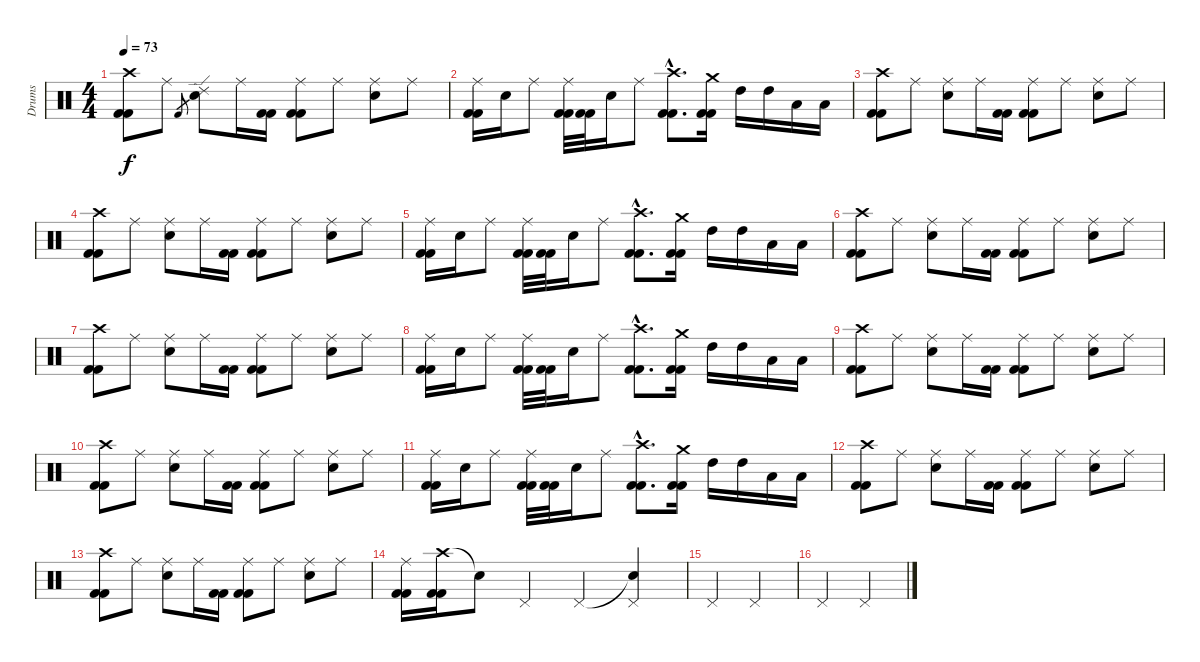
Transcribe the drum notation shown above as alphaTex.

\track ("Drums" "Drums") {instrument percussion}
\staff {score}
\articulation defaults
\ts (4 4)
\tempo 73
\clef neutral
\ks c
("Crash high (hit)" "Kick (hit) 2" "Kick (hit) 2").8{dy f} "Ride (middle)".8 "Kick (hit) 2".8{gr} ("Ride (edge) 2" "Snare (hit) 2").8 "Ride (middle)".16 ("Kick (hit) 2" "Kick (hit) 2").16 ("Ride (middle)" "Kick (hit) 2" "Kick (hit) 2").8 "Ride (middle)".8 ("Ride (middle)" "Snare (hit) 2").8 "Ride (middle)".8 |
("Ride (middle)" "Kick (hit) 2" "Kick (hit) 2").16 "Snare (hit) 2".16 "Ride (middle)".8 ("Ride (middle)" "Kick (hit) 2" "Kick (hit) 2").32 ("Kick (hit) 2" "Kick (hit) 2").32 "Snare (hit) 2".16 "Ride (middle)".8 ("Crash high (hit)"{hac} "Kick (hit) 2"{hac} "Kick (hit) 2"{hac}).8{d} ("Crash medium (hit)" "Kick (hit) 2" "Kick (hit) 2").16 "High Tom (hit)".16 "High Tom (hit)".16 "Low Tom (hit)".16 "Low Tom (hit)".16 |
("Crash high (hit)" "Kick (hit) 2" "Kick (hit) 2").8 "Ride (middle)".8 ("Ride (middle)" "Snare (hit) 2").8 "Ride (middle)".16 ("Kick (hit) 2" "Kick (hit) 2").16 ("Ride (middle)" "Kick (hit) 2" "Kick (hit) 2").8 "Ride (middle)".8 ("Ride (middle)" "Snare (hit) 2").8 "Ride (middle)".8 |
("Crash high (hit)" "Kick (hit) 2" "Kick (hit) 2").8 "Ride (middle)".8 ("Ride (middle)" "Snare (hit) 2").8 "Ride (middle)".16 ("Kick (hit) 2" "Kick (hit) 2").16 ("Ride (middle)" "Kick (hit) 2" "Kick (hit) 2").8 "Ride (middle)".8 ("Ride (middle)" "Snare (hit) 2").8 "Ride (middle)".8 |
("Ride (middle)" "Kick (hit) 2" "Kick (hit) 2").16 "Snare (hit) 2".16 "Ride (middle)".8 ("Ride (middle)" "Kick (hit) 2" "Kick (hit) 2").32 ("Kick (hit) 2" "Kick (hit) 2").32 "Snare (hit) 2".16 "Ride (middle)".8 ("Crash high (hit)"{hac} "Kick (hit) 2"{hac} "Kick (hit) 2"{hac}).8{d} ("Crash medium (hit)" "Kick (hit) 2" "Kick (hit) 2").16 "High Tom (hit)".16 "High Tom (hit)".16 "Low Tom (hit)".16 "Low Tom (hit)".16 |
("Crash high (hit)" "Kick (hit) 2" "Kick (hit) 2").8 "Ride (middle)".8 ("Ride (middle)" "Snare (hit) 2").8 "Ride (middle)".16 ("Kick (hit) 2" "Kick (hit) 2").16 ("Ride (middle)" "Kick (hit) 2" "Kick (hit) 2").8 "Ride (middle)".8 ("Ride (middle)" "Snare (hit) 2").8 "Ride (middle)".8 |
("Crash high (hit)" "Kick (hit) 2" "Kick (hit) 2").8 "Ride (middle)".8 ("Ride (middle)" "Snare (hit) 2").8 "Ride (middle)".16 ("Kick (hit) 2" "Kick (hit) 2").16 ("Ride (middle)" "Kick (hit) 2" "Kick (hit) 2").8 "Ride (middle)".8 ("Ride (middle)" "Snare (hit) 2").8 "Ride (middle)".8 |
("Ride (middle)" "Kick (hit) 2" "Kick (hit) 2").16 "Snare (hit) 2".16 "Ride (middle)".8 ("Ride (middle)" "Kick (hit) 2" "Kick (hit) 2").32 ("Kick (hit) 2" "Kick (hit) 2").32 "Snare (hit) 2".16 "Ride (middle)".8 ("Crash high (hit)"{hac} "Kick (hit) 2"{hac} "Kick (hit) 2"{hac}).8{d} ("Crash medium (hit)" "Kick (hit) 2" "Kick (hit) 2").16 "High Tom (hit)".16 "High Tom (hit)".16 "Low Tom (hit)".16 "Low Tom (hit)".16 |
("Crash high (hit)" "Kick (hit) 2" "Kick (hit) 2").8 "Ride (middle)".8 ("Ride (middle)" "Snare (hit) 2").8 "Ride (middle)".16 ("Kick (hit) 2" "Kick (hit) 2").16 ("Ride (middle)" "Kick (hit) 2" "Kick (hit) 2").8 "Ride (middle)".8 ("Ride (middle)" "Snare (hit) 2").8 "Ride (middle)".8 |
("Crash high (hit)" "Kick (hit) 2" "Kick (hit) 2").8 "Ride (middle)".8 ("Ride (middle)" "Snare (hit) 2").8 "Ride (middle)".16 ("Kick (hit) 2" "Kick (hit) 2").16 ("Ride (middle)" "Kick (hit) 2" "Kick (hit) 2").8 "Ride (middle)".8 ("Ride (middle)" "Snare (hit) 2").8 "Ride (middle)".8 |
("Ride (middle)" "Kick (hit) 2" "Kick (hit) 2").16 "Snare (hit) 2".16 "Ride (middle)".8 ("Ride (middle)" "Kick (hit) 2" "Kick (hit) 2").32 ("Kick (hit) 2" "Kick (hit) 2").32 "Snare (hit) 2".16 "Ride (middle)".8 ("Crash high (hit)"{hac} "Kick (hit) 2"{hac} "Kick (hit) 2"{hac}).8{d} ("Crash medium (hit)" "Kick (hit) 2" "Kick (hit) 2").16 "High Tom (hit)".16 "High Tom (hit)".16 "Low Tom (hit)".16 "Low Tom (hit)".16 |
("Crash high (hit)" "Kick (hit) 2" "Kick (hit) 2").8 "Ride (middle)".8 ("Ride (middle)" "Snare (hit) 2").8 "Ride (middle)".16 ("Kick (hit) 2" "Kick (hit) 2").16 ("Ride (middle)" "Kick (hit) 2" "Kick (hit) 2").8 "Ride (middle)".8 ("Ride (middle)" "Snare (hit) 2").8 "Ride (middle)".8 |
("Crash high (hit)" "Kick (hit) 2" "Kick (hit) 2").8 "Ride (middle)".8 ("Ride (middle)" "Snare (hit) 2").8 "Ride (middle)".16 ("Kick (hit) 2" "Kick (hit) 2").16 ("Ride (middle)" "Kick (hit) 2" "Kick (hit) 2").8 "Ride (middle)".8 ("Ride (middle)" "Snare (hit) 2").8 "Ride (middle)".8 |
("Ride (middle)" "Kick (hit) 2" "Kick (hit) 2").16 ("Crash high (hit)" "Kick (hit) 2" "Kick (hit) 2").16 "Snare (hit)"{t}.8 "Pedal Hi-Hat (hit)".4 "Pedal Hi-Hat (hit)".4 ("Snare (hit)"{t} "Pedal Hi-Hat (hit)").4 |
"Pedal Hi-Hat (hit)".2 "Pedal Hi-Hat (hit)".2 |
"Pedal Hi-Hat (hit)".2 "Pedal Hi-Hat (hit)".2
